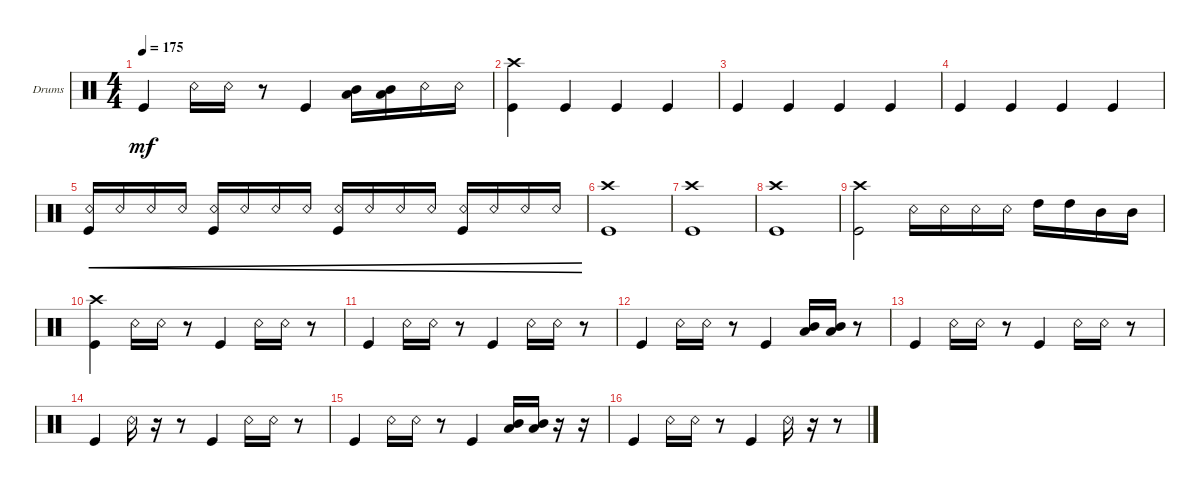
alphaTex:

\defaultSystemsLayout 4
\bracketExtendMode groupsimilarinstruments
\firstSystemTrackNameOrientation horizontal
\otherSystemsTrackNameOrientation horizontal
\track ("Drumkit" "Drums") {instrument percussion}
\staff {score}
\articulation defaults
\ts (4 4)
\tempo 175
\clef neutral
\ks c "Kick (hit)".4{dy mf} "Snare (rim shot)".16 "Snare (rim shot)".16
r.8 "Kick (hit)".4 ("Mid Tom (hit)" "Low Tom (hit)").16 ("Low Tom (hit)" "Mid Tom (hit)").16 "Snare (rim shot)".16 "Snare (rim shot)".16 |
("Crash high (hit)" "Kick (hit)").4 "Kick (hit)".4 "Kick (hit)".4 "Kick (hit)".4 |
"Kick (hit)".4 "Kick (hit)".4 "Kick (hit)".4 "Kick (hit)".4 |
"Kick (hit)".4 "Kick (hit)".4 "Kick (hit)".4 "Kick (hit)".4 |
("Kick (hit)" "Snare (rim shot)").16{cre} "Snare (rim shot)".16{cre} "Snare (rim shot)".16{cre} "Snare (rim shot)".16{cre} ("Kick (hit)" "Snare (rim shot)").16{cre} "Snare (rim shot)".16{cre} "Snare (rim shot)".16{cre} "Snare (rim shot)".16{cre} ("Kick (hit)" "Snare (rim shot)").16{cre} "Snare (rim shot)".16{cre} "Snare (rim shot)".16{cre} "Snare (rim shot)".16{cre} ("Kick (hit)" "Snare (rim shot)").16{cre} "Snare (rim shot)".16{cre} "Snare (rim shot)".16{cre} "Snare (rim shot)".16{cre} |
("Kick (hit)" "Crash high (hit)").1 |
("Kick (hit)" "Crash high (hit)").1 |
("Kick (hit)" "Crash high (hit)").1 |
("Kick (hit)" "Crash high (hit)").2 "Snare (rim shot)".16 "Snare (rim shot)".16 "Snare (rim shot)".16 "Snare (rim shot)".16 "High Tom (hit)".16 "High Tom (hit)".16 "Mid Tom (hit)".16 "Mid Tom (hit)".16 |
("Kick (hit)" "Crash high (hit)").4 "Snare (rim shot)".16 "Snare (rim shot)".16 r.8 "Kick (hit)".4 "Snare (rim shot)".16 "Snare (rim shot)".16 r.8 |
"Kick (hit)".4 "Snare (rim shot)".16 "Snare (rim shot)".16 r.8 "Kick (hit)".4 "Snare (rim shot)".16 "Snare (rim shot)".16 r.8 |
"Kick (hit)".4 "Snare (rim shot)".16 "Snare (rim shot)".16 r.8 "Kick (hit)".4 ("Mid Tom (hit)" "Low Tom (hit)").16 ("Low Tom (hit)" "Mid Tom (hit)").16 r.8 |
"Kick (hit)".4 "Snare (rim shot)".16 "Snare (rim shot)".16 r.8 "Kick (hit)".4 "Snare (rim shot)".16 "Snare (rim shot)".16 r.8 |
"Kick (hit)".4 "Snare (rim shot)".16 r.16 r.8 "Kick (hit)".4 "Snare (rim shot)".16 "Snare (rim shot)".16 r.8 |
"Kick (hit)".4 "Snare (rim shot)".16 "Snare (rim shot)".16 r.8 "Kick (hit)".4 ("Mid Tom (hit)" "Low Tom (hit)").16 ("Low Tom (hit)" "Mid Tom (hit)").16 r.16 r.16 |
"Kick (hit)".4 "Snare (rim shot)".16 "Snare (rim shot)".16 r.8 "Kick (hit)".4 "Snare (rim shot)".16 r.16 r.8
